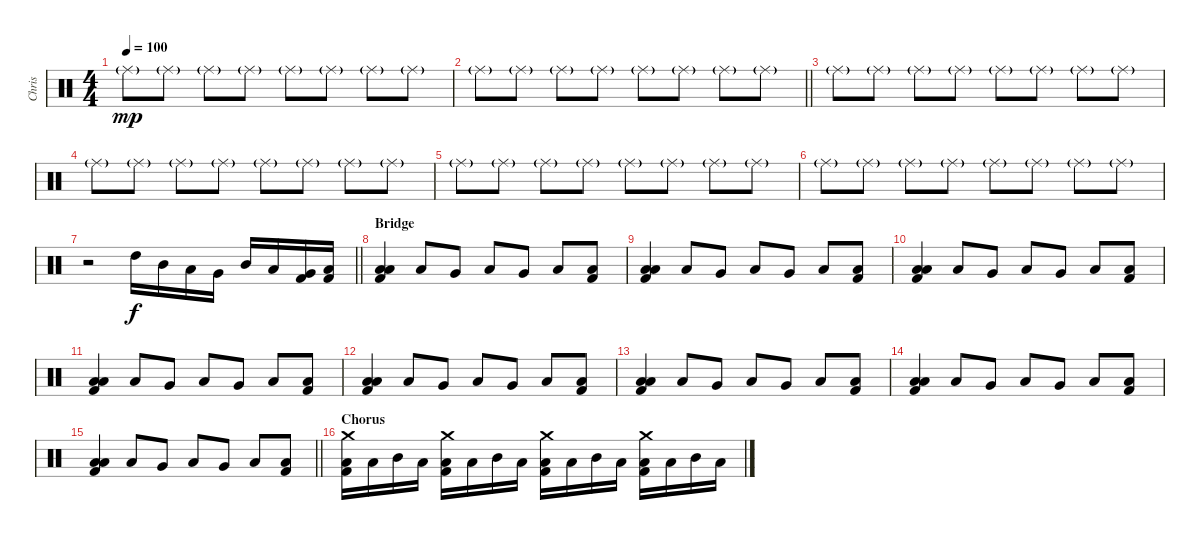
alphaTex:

\track ("Chris" "Chris") {instrument percussion}
\staff {score}
\articulation defaults
\ts (4 4)
\tempo 100
\clef neutral
\ks c "Ride (middle)"{g}.8{dy mp} "Ride (middle)"{g}.8 "Ride (middle)"{g}.8 "Ride (middle)"{g}.8 "Ride (middle)"{g}.8 "Ride (middle)"{g}.8 "Ride (middle)"{g}.8 "Ride (middle)"{g}.8
|
\barLineRight lightlight "Ride (middle)"{g}.8 "Ride (middle)"{g}.8 "Ride (middle)"{g}.8 "Ride (middle)"{g}.8 "Ride (middle)"{g}.8 "Ride (middle)"{g}.8 "Ride (middle)"{g}.8 "Ride (middle)"{g}.8
|
"Ride (middle)"{g}.8 "Ride (middle)"{g}.8 "Ride (middle)"{g}.8 "Ride (middle)"{g}.8 "Ride (middle)"{g}.8 "Ride (middle)"{g}.8 "Ride (middle)"{g}.8 "Ride (middle)"{g}.8 |
"Ride (middle)"{g}.8 "Ride (middle)"{g}.8 "Ride (middle)"{g}.8 "Ride (middle)"{g}.8 "Ride (middle)"{g}.8 "Ride (middle)"{g}.8 "Ride (middle)"{g}.8 "Ride (middle)"{g}.8 |
"Ride (middle)"{g}.8 "Ride (middle)"{g}.8 "Ride (middle)"{g}.8 "Ride (middle)"{g}.8 "Ride (middle)"{g}.8 "Ride (middle)"{g}.8 "Ride (middle)"{g}.8 "Ride (middle)"{g}.8 |
"Ride (middle)"{g}.8 "Ride (middle)"{g}.8 "Ride (middle)"{g}.8 "Ride (middle)"{g}.8 "Ride (middle)"{g}.8 "Ride (middle)"{g}.8 "Ride (middle)"{g}.8 "Ride (middle)"{g}.8 |
\barLineRight lightlight
r.2 "High Tom (hit)".16{dy f} "Mid Tom (hit)".16 "Low Tom (hit)".16 "Very Low Tom (hit)".16 "Mid Tom (hit)".16 "Low Tom (hit)".16 ("Very Low Tom (hit)" "Kick (hit) 2").16 ("Low Floor Tom (hit)" "Kick (hit) 2").16 |
\section ("" "Bridge")
("Low Floor Tom (hit)" "Low Tom (hit)" "Kick (hit) 2").4 "Low Floor Tom (hit)".8 "Very Low Tom (hit)".8 "Low Tom (hit)".8 "Very Low Tom (hit)".8 "Low Floor Tom (hit)".8 ("Low Floor Tom (hit)" "Kick (hit) 2").8 |
("Low Floor Tom (hit)" "Low Tom (hit)" "Kick (hit) 2").4 "Low Floor Tom (hit)".8 "Very Low Tom (hit)".8 "Low Tom (hit)".8 "Very Low Tom (hit)".8 "Low Floor Tom (hit)".8 ("Low Floor Tom (hit)" "Kick (hit) 2").8 |
("Low Floor Tom (hit)" "Low Tom (hit)" "Kick (hit) 2").4 "Low Floor Tom (hit)".8 "Very Low Tom (hit)".8 "Low Tom (hit)".8 "Very Low Tom (hit)".8 "Low Floor Tom (hit)".8 ("Low Floor Tom (hit)" "Kick (hit) 2").8 |
("Low Floor Tom (hit)" "Low Tom (hit)" "Kick (hit) 2").4 "Low Floor Tom (hit)".8 "Very Low Tom (hit)".8 "Low Tom (hit)".8 "Very Low Tom (hit)".8 "Low Floor Tom (hit)".8 ("Low Floor Tom (hit)" "Kick (hit) 2").8 |
("Low Floor Tom (hit)" "Low Tom (hit)" "Kick (hit) 2").4 "Low Floor Tom (hit)".8 "Very Low Tom (hit)".8 "Low Tom (hit)".8 "Very Low Tom (hit)".8 "Low Floor Tom (hit)".8 ("Low Floor Tom (hit)" "Kick (hit) 2").8 |
("Low Floor Tom (hit)" "Low Tom (hit)" "Kick (hit) 2").4 "Low Floor Tom (hit)".8 "Very Low Tom (hit)".8 "Low Tom (hit)".8 "Very Low Tom (hit)".8 "Low Floor Tom (hit)".8 ("Low Floor Tom (hit)" "Kick (hit) 2").8 |
("Low Floor Tom (hit)" "Low Tom (hit)" "Kick (hit) 2").4 "Low Floor Tom (hit)".8 "Very Low Tom (hit)".8 "Low Tom (hit)".8 "Very Low Tom (hit)".8 "Low Floor Tom (hit)".8 ("Low Floor Tom (hit)" "Kick (hit) 2").8 |
\barLineRight lightlight
("Low Floor Tom (hit)" "Low Tom (hit)" "Kick (hit) 2").4 "Low Floor Tom (hit)".8 "Very Low Tom (hit)".8 "Low Tom (hit)".8 "Very Low Tom (hit)".8 "Low Floor Tom (hit)".8 ("Low Floor Tom (hit)" "Kick (hit) 2").8 |
\section ("" "Chorus")
("Crash medium (hit)" "Low Tom (hit)" "Kick (hit) 2").16 "Low Tom (hit)".16 "Mid Tom (hit)".16 "Low Tom (hit)".16 ("Crash medium (hit)" "Low Tom (hit)" "Kick (hit) 2").16 "Low Tom (hit)".16 "Mid Tom (hit)".16 "Low Tom (hit)".16 ("Crash medium (hit)" "Low Tom (hit)" "Kick (hit) 2").16 "Low Tom (hit)".16 "Mid Tom (hit)".16 "Low Tom (hit)".16 ("Crash medium (hit)" "Low Tom (hit)" "Kick (hit) 2").16 "Low Tom (hit)".16 "Mid Tom (hit)".16 "Low Tom (hit)".16
